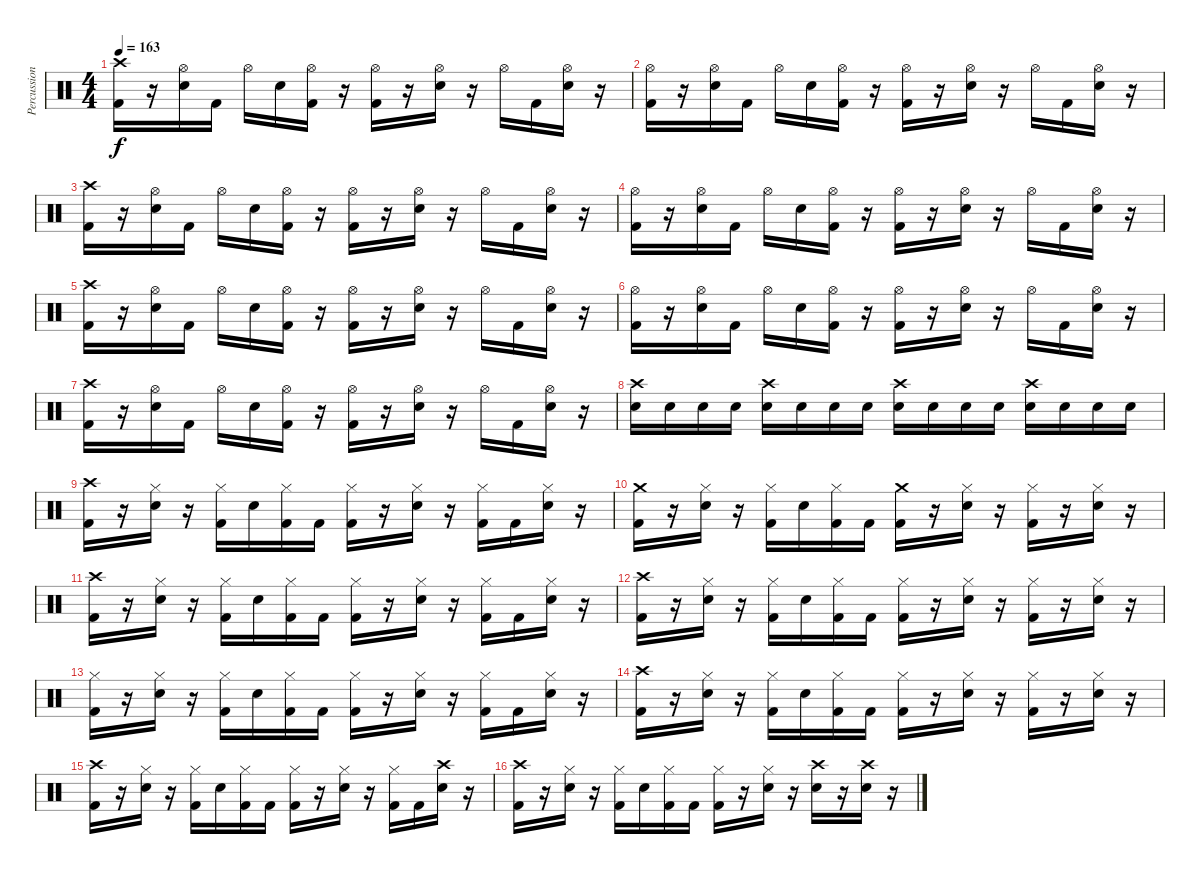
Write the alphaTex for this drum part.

\track ("Percussion" "Percussion") {instrument percussion}
\staff {score}
\articulation defaults
\ts (4 4)
\tempo 163
\clef neutral
\ks c
("Crash high (hit)" "Kick (hit) 2").16{dy f} r.16 ("Hi-Hat (open)" "Snare (hit) 2").16 "Kick (hit) 2".16 "Hi-Hat (open)".16 "Snare (hit) 2".16 ("Hi-Hat (open)" "Kick (hit) 2").16 r.16 ("Hi-Hat (open)" "Kick (hit) 2").16 r.16 ("Hi-Hat (open)" "Snare (hit) 2").16 r.16 "Hi-Hat (open)".16 "Kick (hit) 2".16 ("Hi-Hat (open)" "Snare (hit) 2").16 r.16 |
("Hi-Hat (open)" "Kick (hit) 2").16 r.16 ("Hi-Hat (open)" "Snare (hit) 2").16 "Kick (hit) 2".16 "Hi-Hat (open)".16 "Snare (hit) 2".16 ("Hi-Hat (open)" "Kick (hit) 2").16 r.16 ("Hi-Hat (open)" "Kick (hit) 2").16 r.16 ("Hi-Hat (open)" "Snare (hit) 2").16 r.16 "Hi-Hat (open)".16 "Kick (hit) 2".16 ("Hi-Hat (open)" "Snare (hit) 2").16 r.16 |
("Crash high (hit)" "Kick (hit) 2").16 r.16 ("Hi-Hat (open)" "Snare (hit) 2").16 "Kick (hit) 2".16 "Hi-Hat (open)".16 "Snare (hit) 2".16 ("Hi-Hat (open)" "Kick (hit) 2").16 r.16 ("Hi-Hat (open)" "Kick (hit) 2").16 r.16 ("Hi-Hat (open)" "Snare (hit) 2").16 r.16 "Hi-Hat (open)".16 "Kick (hit) 2".16 ("Hi-Hat (open)" "Snare (hit) 2").16 r.16 |
("Hi-Hat (open)" "Kick (hit) 2").16 r.16 ("Hi-Hat (open)" "Snare (hit) 2").16 "Kick (hit) 2".16 "Hi-Hat (open)".16 "Snare (hit) 2".16 ("Hi-Hat (open)" "Kick (hit) 2").16 r.16 ("Hi-Hat (open)" "Kick (hit) 2").16 r.16 ("Hi-Hat (open)" "Snare (hit) 2").16 r.16 "Hi-Hat (open)".16 "Kick (hit) 2".16 ("Hi-Hat (open)" "Snare (hit) 2").16 r.16 |
("Crash high (hit)" "Kick (hit) 2").16 r.16 ("Hi-Hat (open)" "Snare (hit) 2").16 "Kick (hit) 2".16 "Hi-Hat (open)".16 "Snare (hit) 2".16 ("Hi-Hat (open)" "Kick (hit) 2").16 r.16 ("Hi-Hat (open)" "Kick (hit) 2").16 r.16 ("Hi-Hat (open)" "Snare (hit) 2").16 r.16 "Hi-Hat (open)".16 "Kick (hit) 2".16 ("Hi-Hat (open)" "Snare (hit) 2").16 r.16 |
("Hi-Hat (open)" "Kick (hit) 2").16 r.16 ("Hi-Hat (open)" "Snare (hit) 2").16 "Kick (hit) 2".16 "Hi-Hat (open)".16 "Snare (hit) 2".16 ("Hi-Hat (open)" "Kick (hit) 2").16 r.16 ("Hi-Hat (open)" "Kick (hit) 2").16 r.16 ("Hi-Hat (open)" "Snare (hit) 2").16 r.16 "Hi-Hat (open)".16 "Kick (hit) 2".16 ("Hi-Hat (open)" "Snare (hit) 2").16 r.16 |
("Crash high (hit)" "Kick (hit) 2").16 r.16 ("Hi-Hat (open)" "Snare (hit) 2").16 "Kick (hit) 2".16 "Hi-Hat (open)".16 "Snare (hit) 2".16 ("Hi-Hat (open)" "Kick (hit) 2").16 r.16 ("Hi-Hat (open)" "Kick (hit) 2").16 r.16 ("Hi-Hat (open)" "Snare (hit) 2").16 r.16 "Hi-Hat (open)".16 "Kick (hit) 2".16 ("Hi-Hat (open)" "Snare (hit) 2").16 r.16 |
("Crash high (hit)" "Snare (hit) 2").16 "Snare (hit) 2".16 "Snare (hit) 2".16 "Snare (hit) 2".16 ("Crash high (hit)" "Snare (hit) 2").16 "Snare (hit) 2".16 "Snare (hit) 2".16 "Snare (hit) 2".16 ("Crash high (hit)" "Snare (hit) 2").16 "Snare (hit) 2".16 "Snare (hit) 2".16 "Snare (hit) 2".16 ("Crash high (hit)" "Snare (hit) 2").16 "Snare (hit) 2".16 "Snare (hit) 2".16 "Snare (hit) 2".16 |
("Crash high (hit)" "Kick (hit) 2").16 r.16 ("Hi-Hat (closed)" "Snare (hit) 2").16 r.16 ("Hi-Hat (closed)" "Kick (hit) 2").16 "Snare (hit) 2".16 ("Hi-Hat (closed)" "Kick (hit) 2").16 "Kick (hit) 2".16 ("Hi-Hat (closed)" "Kick (hit) 2").16 r.16 ("Hi-Hat (closed)" "Snare (hit) 2").16 r.16 ("Hi-Hat (closed)" "Kick (hit) 2").16 "Kick (hit) 2".16 ("Hi-Hat (closed)" "Snare (hit) 2").16 r.16 |
("Crash medium (hit)" "Kick (hit) 2").16 r.16 ("Hi-Hat (closed)" "Snare (hit) 2").16 r.16 ("Hi-Hat (closed)" "Kick (hit) 2").16 "Snare (hit) 2".16 ("Hi-Hat (closed)" "Kick (hit) 2").16 "Kick (hit) 2".16 ("Crash medium (hit)" "Kick (hit) 2").16 r.16 ("Hi-Hat (closed)" "Snare (hit) 2").16 r.16 ("Hi-Hat (closed)" "Kick (hit) 2").16 r.16 ("Hi-Hat (closed)" "Snare (hit) 2").16 r.16 |
("Crash high (hit)" "Kick (hit) 2").16 r.16 ("Hi-Hat (closed)" "Snare (hit) 2").16 r.16 ("Hi-Hat (closed)" "Kick (hit) 2").16 "Snare (hit) 2".16 ("Hi-Hat (closed)" "Kick (hit) 2").16 "Kick (hit) 2".16 ("Hi-Hat (closed)" "Kick (hit) 2").16 r.16 ("Hi-Hat (closed)" "Snare (hit) 2").16 r.16 ("Hi-Hat (closed)" "Kick (hit) 2").16 "Kick (hit) 2".16 ("Hi-Hat (closed)" "Snare (hit) 2").16 r.16 |
("Crash high (hit)" "Kick (hit) 2").16 r.16 ("Hi-Hat (closed)" "Snare (hit) 2").16 r.16 ("Hi-Hat (closed)" "Kick (hit) 2").16 "Snare (hit) 2".16 ("Hi-Hat (closed)" "Kick (hit) 2").16 "Kick (hit) 2".16 ("Hi-Hat (closed)" "Kick (hit) 2").16 r.16 ("Hi-Hat (closed)" "Snare (hit) 2").16 r.16 ("Hi-Hat (closed)" "Kick (hit) 2").16 r.16 ("Hi-Hat (closed)" "Snare (hit) 2").16 r.16 |
("Hi-Hat (closed)" "Kick (hit) 2").16 r.16 ("Hi-Hat (closed)" "Snare (hit) 2").16 r.16 ("Hi-Hat (closed)" "Kick (hit) 2").16 "Snare (hit) 2".16 ("Hi-Hat (closed)" "Kick (hit) 2").16 "Kick (hit) 2".16 ("Hi-Hat (closed)" "Kick (hit) 2").16 r.16 ("Hi-Hat (closed)" "Snare (hit) 2").16 r.16 ("Hi-Hat (closed)" "Kick (hit) 2").16 "Kick (hit) 2".16 ("Hi-Hat (closed)" "Snare (hit) 2").16 r.16 |
("Crash high (hit)" "Kick (hit) 2").16 r.16 ("Hi-Hat (closed)" "Snare (hit) 2").16 r.16 ("Hi-Hat (closed)" "Kick (hit) 2").16 "Snare (hit) 2".16 ("Hi-Hat (closed)" "Kick (hit) 2").16 "Kick (hit) 2".16 ("Hi-Hat (closed)" "Kick (hit) 2").16 r.16 ("Hi-Hat (closed)" "Snare (hit) 2").16 r.16 ("Hi-Hat (closed)" "Kick (hit) 2").16 r.16 ("Hi-Hat (closed)" "Snare (hit) 2").16 r.16 |
("Crash high (hit)" "Kick (hit) 2").16 r.16 ("Hi-Hat (closed)" "Snare (hit) 2").16 r.16 ("Hi-Hat (closed)" "Kick (hit) 2").16 "Snare (hit) 2".16 ("Hi-Hat (closed)" "Kick (hit) 2").16 "Kick (hit) 2".16 ("Hi-Hat (closed)" "Kick (hit) 2").16 r.16 ("Hi-Hat (closed)" "Snare (hit) 2").16 r.16 ("Hi-Hat (closed)" "Kick (hit) 2").16 "Kick (hit) 2".16 ("Crash high (hit)" "Snare (hit) 2").16 r.16 |
("Crash high (hit)" "Kick (hit) 2").16 r.16 ("Hi-Hat (closed)" "Snare (hit) 2").16 r.16 ("Hi-Hat (closed)" "Kick (hit) 2").16 "Snare (hit) 2".16 ("Hi-Hat (closed)" "Kick (hit) 2").16 "Kick (hit) 2".16 ("Hi-Hat (closed)" "Kick (hit) 2").16 r.16 ("Hi-Hat (closed)" "Snare (hit) 2").16 r.16 ("Crash high (hit)" "Snare (hit) 2").16 r.16 ("Crash high (hit)" "Snare (hit) 2").16 r.16
